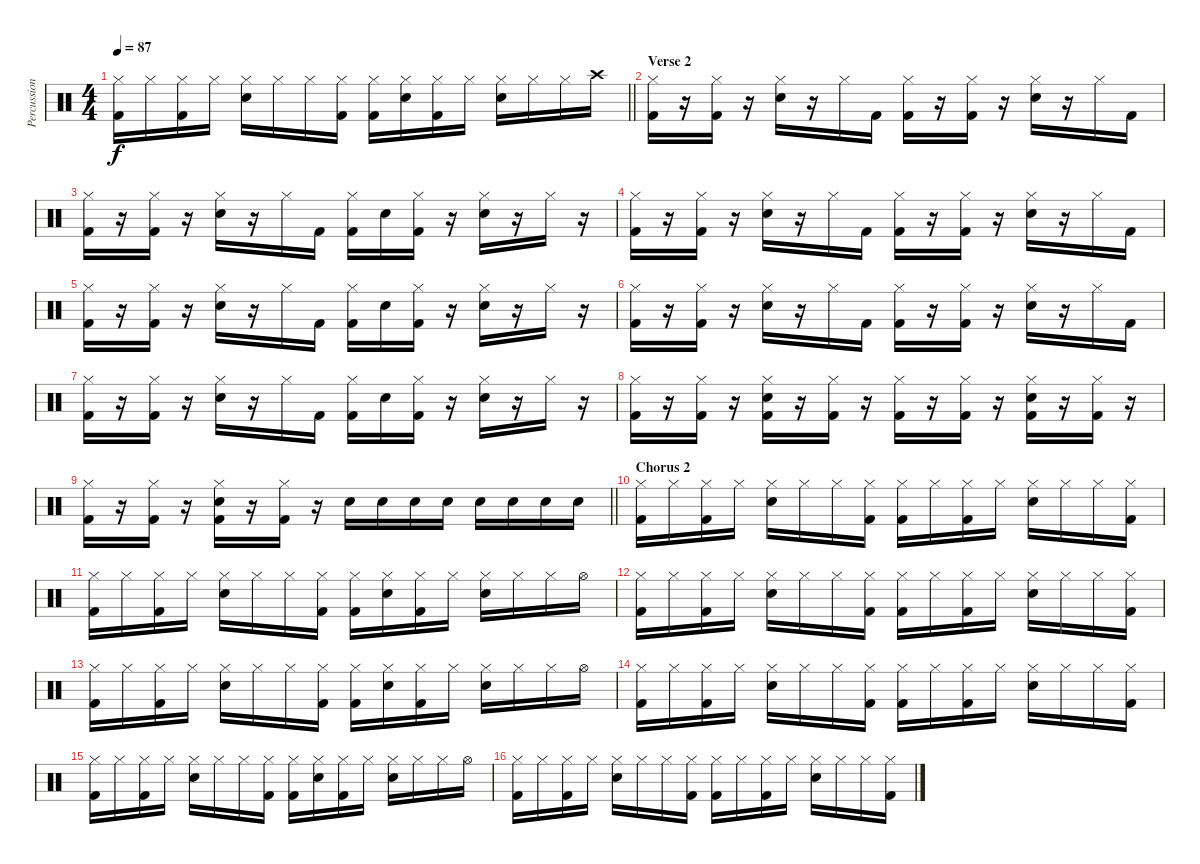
\track ("Percussion" "Percussion") {instrument percussion}
\staff {score}
\articulation defaults
\ts (4 4)
\tempo 87
\clef neutral
\barLineRight lightlight
\ks c
("Hi-Hat (closed)" "Kick (hit) 2").16{dy f} "Hi-Hat (closed)".16 ("Hi-Hat (closed)" "Kick (hit) 2").16 "Hi-Hat (closed)".16 ("Hi-Hat (closed)" "Snare (hit) 2").16 "Hi-Hat (closed)".16 "Hi-Hat (closed)".16 ("Hi-Hat (closed)" "Kick (hit) 2").16 ("Hi-Hat (closed)" "Kick (hit) 2").16 ("Hi-Hat (closed)" "Snare (hit) 2").16 ("Hi-Hat (closed)" "Kick (hit) 2").16 "Hi-Hat (closed)".16 ("Hi-Hat (closed)" "Snare (hit) 2").16 "Hi-Hat (closed)".16 "Hi-Hat (closed)".16 "Crash high (hit)".16 |
\section ("" "Verse 2")
("Hi-Hat (closed)" "Kick (hit) 2").16 r.16 ("Hi-Hat (closed)" "Kick (hit) 2").16 r.16 ("Hi-Hat (closed)" "Snare (hit) 2").16 r.16 "Hi-Hat (closed)".16 "Kick (hit) 2".16 ("Hi-Hat (closed)" "Kick (hit) 2").16 r.16 ("Hi-Hat (closed)" "Kick (hit) 2").16 r.16 ("Hi-Hat (closed)" "Snare (hit) 2").16 r.16 "Hi-Hat (closed)".16 "Kick (hit) 2".16 |
("Hi-Hat (closed)" "Kick (hit) 2").16 r.16 ("Hi-Hat (closed)" "Kick (hit) 2").16 r.16 ("Hi-Hat (closed)" "Snare (hit) 2").16 r.16 "Hi-Hat (closed)".16 "Kick (hit) 2".16 ("Hi-Hat (closed)" "Kick (hit) 2").16 "Snare (hit) 2".16 ("Hi-Hat (closed)" "Kick (hit) 2").16 r.16 ("Hi-Hat (closed)" "Snare (hit) 2").16 r.16 "Hi-Hat (closed)".16 r.16 |
("Hi-Hat (closed)" "Kick (hit) 2").16 r.16 ("Hi-Hat (closed)" "Kick (hit) 2").16 r.16 ("Hi-Hat (closed)" "Snare (hit) 2").16 r.16 "Hi-Hat (closed)".16 "Kick (hit) 2".16 ("Hi-Hat (closed)" "Kick (hit) 2").16 r.16 ("Hi-Hat (closed)" "Kick (hit) 2").16 r.16 ("Hi-Hat (closed)" "Snare (hit) 2").16 r.16 "Hi-Hat (closed)".16 "Kick (hit) 2".16 |
("Hi-Hat (closed)" "Kick (hit) 2").16 r.16 ("Hi-Hat (closed)" "Kick (hit) 2").16 r.16 ("Hi-Hat (closed)" "Snare (hit) 2").16 r.16 "Hi-Hat (closed)".16 "Kick (hit) 2".16 ("Hi-Hat (closed)" "Kick (hit) 2").16 "Snare (hit) 2".16 ("Hi-Hat (closed)" "Kick (hit) 2").16 r.16 ("Hi-Hat (closed)" "Snare (hit) 2").16 r.16 "Hi-Hat (closed)".16 r.16 |
("Hi-Hat (closed)" "Kick (hit) 2").16 r.16 ("Hi-Hat (closed)" "Kick (hit) 2").16 r.16 ("Hi-Hat (closed)" "Snare (hit) 2").16 r.16 "Hi-Hat (closed)".16 "Kick (hit) 2".16 ("Hi-Hat (closed)" "Kick (hit) 2").16 r.16 ("Hi-Hat (closed)" "Kick (hit) 2").16 r.16 ("Hi-Hat (closed)" "Snare (hit) 2").16 r.16 "Hi-Hat (closed)".16 "Kick (hit) 2".16 |
("Hi-Hat (closed)" "Kick (hit) 2").16 r.16 ("Hi-Hat (closed)" "Kick (hit) 2").16 r.16 ("Hi-Hat (closed)" "Snare (hit) 2").16 r.16 "Hi-Hat (closed)".16 "Kick (hit) 2".16 ("Hi-Hat (closed)" "Kick (hit) 2").16 "Snare (hit) 2".16 ("Hi-Hat (closed)" "Kick (hit) 2").16 r.16 ("Hi-Hat (closed)" "Snare (hit) 2").16 r.16 "Hi-Hat (closed)".16 r.16 |
("Hi-Hat (closed)" "Kick (hit) 2").16 r.16 ("Hi-Hat (closed)" "Kick (hit) 2").16 r.16 ("Hi-Hat (closed)" "Snare (hit) 2" "Kick (hit) 2").16 r.16 ("Hi-Hat (closed)" "Kick (hit) 2").16 r.16 ("Hi-Hat (closed)" "Kick (hit) 2").16 r.16 ("Hi-Hat (closed)" "Kick (hit) 2").16 r.16 ("Hi-Hat (closed)" "Snare (hit) 2" "Kick (hit) 2").16 r.16 ("Hi-Hat (closed)" "Kick (hit) 2").16 r.16 |
\barLineRight lightlight
("Hi-Hat (closed)" "Kick (hit) 2").16 r.16 ("Hi-Hat (closed)" "Kick (hit) 2").16 r.16 ("Hi-Hat (closed)" "Snare (hit) 2" "Kick (hit) 2").16 r.16 ("Hi-Hat (closed)" "Kick (hit) 2").16 r.16 "Snare (hit) 2".16 "Snare (hit) 2".16 "Snare (hit) 2".16 "Snare (hit) 2".16 "Snare (hit) 2".16 "Snare (hit) 2".16 "Snare (hit) 2".16 "Snare (hit) 2".16 |
\section ("" "Chorus 2")
("Hi-Hat (closed)" "Kick (hit) 2").16 "Hi-Hat (closed)".16 ("Hi-Hat (closed)" "Kick (hit) 2").16 "Hi-Hat (closed)".16 ("Hi-Hat (closed)" "Snare (hit) 2").16 "Hi-Hat (closed)".16 "Hi-Hat (closed)".16 ("Hi-Hat (closed)" "Kick (hit) 2").16 ("Hi-Hat (closed)" "Kick (hit) 2").16 "Hi-Hat (closed)".16 ("Hi-Hat (closed)" "Kick (hit) 2").16 "Hi-Hat (closed)".16 ("Hi-Hat (closed)" "Snare (hit) 2").16 "Hi-Hat (closed)".16 "Hi-Hat (closed)".16 ("Hi-Hat (closed)" "Kick (hit) 2").16 |
("Hi-Hat (closed)" "Kick (hit) 2").16 "Hi-Hat (closed)".16 ("Hi-Hat (closed)" "Kick (hit) 2").16 "Hi-Hat (closed)".16 ("Hi-Hat (closed)" "Snare (hit) 2").16 "Hi-Hat (closed)".16 "Hi-Hat (closed)".16 ("Hi-Hat (closed)" "Kick (hit) 2").16 ("Hi-Hat (closed)" "Kick (hit) 2").16 ("Hi-Hat (closed)" "Snare (hit) 2").16 ("Hi-Hat (closed)" "Kick (hit) 2").16 "Hi-Hat (closed)".16 ("Hi-Hat (closed)" "Snare (hit) 2").16 "Hi-Hat (closed)".16 "Hi-Hat (closed)".16 "Hi-Hat (open)".16 |
("Hi-Hat (closed)" "Kick (hit) 2").16 "Hi-Hat (closed)".16 ("Hi-Hat (closed)" "Kick (hit) 2").16 "Hi-Hat (closed)".16 ("Hi-Hat (closed)" "Snare (hit) 2").16 "Hi-Hat (closed)".16 "Hi-Hat (closed)".16 ("Hi-Hat (closed)" "Kick (hit) 2").16 ("Hi-Hat (closed)" "Kick (hit) 2").16 "Hi-Hat (closed)".16 ("Hi-Hat (closed)" "Kick (hit) 2").16 "Hi-Hat (closed)".16 ("Hi-Hat (closed)" "Snare (hit) 2").16 "Hi-Hat (closed)".16 "Hi-Hat (closed)".16 ("Hi-Hat (closed)" "Kick (hit) 2").16 |
("Hi-Hat (closed)" "Kick (hit) 2").16 "Hi-Hat (closed)".16 ("Hi-Hat (closed)" "Kick (hit) 2").16 "Hi-Hat (closed)".16 ("Hi-Hat (closed)" "Snare (hit) 2").16 "Hi-Hat (closed)".16 "Hi-Hat (closed)".16 ("Hi-Hat (closed)" "Kick (hit) 2").16 ("Hi-Hat (closed)" "Kick (hit) 2").16 ("Hi-Hat (closed)" "Snare (hit) 2").16 ("Hi-Hat (closed)" "Kick (hit) 2").16 "Hi-Hat (closed)".16 ("Hi-Hat (closed)" "Snare (hit) 2").16 "Hi-Hat (closed)".16 "Hi-Hat (closed)".16 "Hi-Hat (open)".16 |
("Hi-Hat (closed)" "Kick (hit) 2").16 "Hi-Hat (closed)".16 ("Hi-Hat (closed)" "Kick (hit) 2").16 "Hi-Hat (closed)".16 ("Hi-Hat (closed)" "Snare (hit) 2").16 "Hi-Hat (closed)".16 "Hi-Hat (closed)".16 ("Hi-Hat (closed)" "Kick (hit) 2").16 ("Hi-Hat (closed)" "Kick (hit) 2").16 "Hi-Hat (closed)".16 ("Hi-Hat (closed)" "Kick (hit) 2").16 "Hi-Hat (closed)".16 ("Hi-Hat (closed)" "Snare (hit) 2").16 "Hi-Hat (closed)".16 "Hi-Hat (closed)".16 ("Hi-Hat (closed)" "Kick (hit) 2").16 |
("Hi-Hat (closed)" "Kick (hit) 2").16 "Hi-Hat (closed)".16 ("Hi-Hat (closed)" "Kick (hit) 2").16 "Hi-Hat (closed)".16 ("Hi-Hat (closed)" "Snare (hit) 2").16 "Hi-Hat (closed)".16 "Hi-Hat (closed)".16 ("Hi-Hat (closed)" "Kick (hit) 2").16 ("Hi-Hat (closed)" "Kick (hit) 2").16 ("Hi-Hat (closed)" "Snare (hit) 2").16 ("Hi-Hat (closed)" "Kick (hit) 2").16 "Hi-Hat (closed)".16 ("Hi-Hat (closed)" "Snare (hit) 2").16 "Hi-Hat (closed)".16 "Hi-Hat (closed)".16 "Hi-Hat (open)".16 |
("Hi-Hat (closed)" "Kick (hit) 2").16 "Hi-Hat (closed)".16 ("Hi-Hat (closed)" "Kick (hit) 2").16 "Hi-Hat (closed)".16 ("Hi-Hat (closed)" "Snare (hit) 2").16 "Hi-Hat (closed)".16 "Hi-Hat (closed)".16 ("Hi-Hat (closed)" "Kick (hit) 2").16 ("Hi-Hat (closed)" "Kick (hit) 2").16 "Hi-Hat (closed)".16 ("Hi-Hat (closed)" "Kick (hit) 2").16 "Hi-Hat (closed)".16 ("Hi-Hat (closed)" "Snare (hit) 2").16 "Hi-Hat (closed)".16 "Hi-Hat (closed)".16 ("Hi-Hat (closed)" "Kick (hit) 2").16
